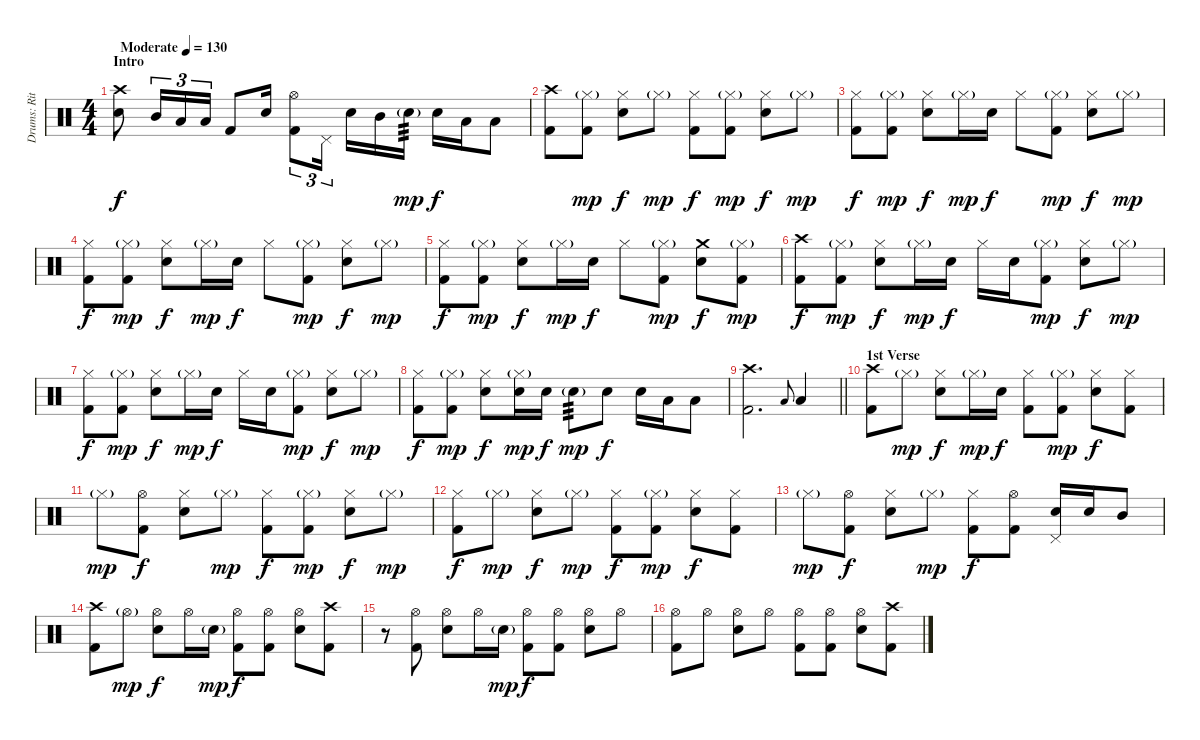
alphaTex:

\track ("Drums: Ritsu Tainaka" "Drums: Rit") {instrument percussion}
\staff {score}
\articulation defaults
\ts (4 4)
\section ("" "Intro")
\tempo (130 "Moderate")
\clef neutral
\ks c
("Crash high (hit)" "Electric Snare (hit)").8{dy f} "Mid Tom (hit)".16{tu (3 2)} "Low Tom (hit)".16{tu (3 2)} "Low Floor Tom (hit)".16{tu (3 2)} "Kick (hit) 2".8 "Electric Snare (hit)".16 ("Hi-Hat (open)" "Kick (hit) 2").8{tu (3 2)} "Pedal Hi-Hat (hit)".16{tu (3 2) beam splitsecondary} "Electric Snare (hit)".16 "Mid Tom (hit)".16 "Electric Snare (hit)"{g}.16{tp 3 dy mp} "Electric Snare (hit)".16{dy f} "Low Tom (hit)".16 "Low Floor Tom (hit)".8 |
("Crash high (hit)" "Kick (hit) 2").8 ("Hi-Hat (closed)"{g} "Kick (hit) 2").8{dy mp} ("Hi-Hat (closed)" "Electric Snare (hit)").8{dy f} "Hi-Hat (closed)"{g}.8{dy mp} ("Hi-Hat (closed)" "Kick (hit) 2").8{dy f} ("Hi-Hat (closed)"{g} "Kick (hit) 2").8{dy mp} ("Hi-Hat (closed)" "Electric Snare (hit)").8{dy f} "Hi-Hat (closed)"{g}.8{dy mp} |
("Hi-Hat (closed)" "Kick (hit) 2").8{dy f} ("Hi-Hat (closed)"{g} "Kick (hit) 2").8{dy mp} ("Hi-Hat (closed)" "Electric Snare (hit)").8{dy f} "Hi-Hat (closed)"{g}.16{dy mp} "Electric Snare (hit)".16{dy f} "Hi-Hat (closed)".8 ("Hi-Hat (closed)"{g} "Kick (hit) 2").8{dy mp} ("Hi-Hat (closed)" "Electric Snare (hit)").8{dy f} "Hi-Hat (closed)"{g}.8{dy mp} |
("Hi-Hat (closed)" "Kick (hit) 2").8{dy f} ("Hi-Hat (closed)"{g} "Kick (hit) 2").8{dy mp} ("Hi-Hat (closed)" "Electric Snare (hit)").8{dy f} "Hi-Hat (closed)"{g}.16{dy mp} "Electric Snare (hit)".16{dy f} "Hi-Hat (closed)".8 ("Hi-Hat (closed)"{g} "Kick (hit) 2").8{dy mp} ("Hi-Hat (closed)" "Electric Snare (hit)").8{dy f} "Hi-Hat (closed)"{g}.8{dy mp} |
("Hi-Hat (closed)" "Kick (hit) 2").8{dy f} ("Hi-Hat (closed)"{g} "Kick (hit) 2").8{dy mp} ("Hi-Hat (closed)" "Electric Snare (hit)").8{dy f} "Hi-Hat (closed)"{g}.16{dy mp} "Electric Snare (hit)".16{dy f} "Hi-Hat (closed)".8 ("Hi-Hat (closed)"{g} "Kick (hit) 2").8{dy mp} ("Crash medium (hit)" "Electric Snare (hit)").8{dy f} ("Hi-Hat (closed)"{g} "Kick (hit) 2").8{dy mp} |
("Crash high (hit)" "Kick (hit) 2").8{dy f} ("Hi-Hat (closed)"{g} "Kick (hit) 2").8{dy mp} ("Hi-Hat (closed)" "Electric Snare (hit)").8{dy f} "Hi-Hat (closed)"{g}.16{dy mp} "Electric Snare (hit)".16{dy f} "Hi-Hat (closed)".16 "Electric Snare (hit)".16 ("Hi-Hat (closed)"{g} "Kick (hit) 2").8{dy mp} ("Hi-Hat (closed)" "Electric Snare (hit)").8{dy f} "Hi-Hat (closed)"{g}.8{dy mp} |
("Hi-Hat (closed)" "Kick (hit) 2").8{dy f} ("Hi-Hat (closed)"{g} "Kick (hit) 2").8{dy mp} ("Hi-Hat (closed)" "Electric Snare (hit)").8{dy f} "Hi-Hat (closed)"{g}.16{dy mp} "Electric Snare (hit)".16{dy f} "Hi-Hat (closed)".16 "Electric Snare (hit)".16 ("Hi-Hat (closed)"{g} "Kick (hit) 2").8{dy mp} ("Hi-Hat (closed)" "Electric Snare (hit)").8{dy f} "Hi-Hat (closed)"{g}.8{dy mp} |
("Hi-Hat (closed)" "Kick (hit) 2").8{dy f} ("Hi-Hat (closed)"{g} "Kick (hit) 2").8{dy mp} ("Hi-Hat (closed)" "Electric Snare (hit)").8{dy f} ("Hi-Hat (closed)"{g} "Electric Snare (hit)").16{dy mp} "Electric Snare (hit)".16{dy f} "Electric Snare (hit)"{g}.8{tp 3 dy mp} "Electric Snare (hit)".8{dy f} "Electric Snare (hit)".16 "Low Tom (hit)".16 "Low Floor Tom (hit)".8 |
\barLineRight lightlight
("Crash high (hit)" "Kick (hit) 2").2{d} "Low Floor Tom (hit)".8{gr onbeat} "Low Floor Tom (hit)".4 |
\section ("" "1st Verse")
("Crash high (hit)" "Kick (hit) 2").8 "Hi-Hat (closed)"{g}.8{dy mp} ("Hi-Hat (closed)" "Electric Snare (hit)").8{dy f} "Hi-Hat (closed)"{g}.16{dy mp} "Electric Snare (hit)".16{dy f} ("Hi-Hat (closed)" "Kick (hit) 2").8 ("Hi-Hat (closed)"{g} "Kick (hit) 2").8{dy mp} ("Hi-Hat (closed)" "Electric Snare (hit)").8{dy f} ("Hi-Hat (closed)" "Kick (hit) 2").8 |
"Hi-Hat (closed)"{g}.8{dy mp} ("Hi-Hat (open)" "Kick (hit) 2").8{dy f} ("Hi-Hat (closed)" "Electric Snare (hit)").8 "Hi-Hat (closed)"{g}.8{dy mp} ("Hi-Hat (closed)" "Kick (hit) 2").8{dy f} ("Hi-Hat (closed)"{g} "Kick (hit) 2").8{dy mp} ("Hi-Hat (closed)" "Electric Snare (hit)").8{dy f} "Hi-Hat (closed)"{g}.8{dy mp} |
("Hi-Hat (closed)" "Kick (hit) 2").8{dy f} "Hi-Hat (closed)"{g}.8{dy mp} ("Hi-Hat (closed)" "Electric Snare (hit)").8{dy f} "Hi-Hat (closed)"{g}.8{dy mp} ("Hi-Hat (closed)" "Kick (hit) 2").8{dy f} ("Hi-Hat (closed)"{g} "Kick (hit) 2").8{dy mp} ("Hi-Hat (closed)" "Electric Snare (hit)").8{dy f} ("Hi-Hat (closed)" "Kick (hit) 2").8 |
"Hi-Hat (closed)"{g}.8{dy mp} ("Hi-Hat (open)" "Kick (hit) 2").8{dy f} ("Hi-Hat (closed)" "Electric Snare (hit)").8 "Hi-Hat (closed)"{g}.8{dy mp} ("Hi-Hat (closed)" "Kick (hit) 2").8{dy f} ("Hi-Hat (open)" "Kick (hit) 2").8 ("Pedal Hi-Hat (hit)" "Electric Snare (hit)").16 "Electric Snare (hit)".16 "Mid Tom (hit)".8 |
("Crash high (hit)" "Kick (hit) 2").8 "Hi-Hat (open)"{g}.8{dy mp} ("Hi-Hat (open)" "Electric Snare (hit)").8{dy f} "Hi-Hat (open)".16 "Electric Snare (hit)"{g}.16{dy mp} ("Hi-Hat (open)" "Kick (hit) 2").8{dy f} ("Hi-Hat (open)" "Kick (hit) 2").8 ("Hi-Hat (open)" "Electric Snare (hit)").8 ("Crash high (hit)" "Kick (hit) 2").8 |
r.8 ("Hi-Hat (open)" "Kick (hit) 2").8 ("Hi-Hat (open)" "Electric Snare (hit)").8 "Hi-Hat (open)".16 "Electric Snare (hit)"{g}.16{dy mp} ("Hi-Hat (open)" "Kick (hit) 2").8{dy f} ("Hi-Hat (open)" "Kick (hit) 2").8 ("Hi-Hat (open)" "Electric Snare (hit)").8 "Hi-Hat (open)".8 |
("Hi-Hat (open)" "Kick (hit) 2").8 "Hi-Hat (open)".8 ("Hi-Hat (open)" "Electric Snare (hit)").8 "Hi-Hat (open)".8 ("Hi-Hat (open)" "Kick (hit) 2").8 ("Hi-Hat (open)" "Kick (hit) 2").8 ("Hi-Hat (open)" "Electric Snare (hit)").8 ("Crash high (hit)" "Kick (hit) 2").8
